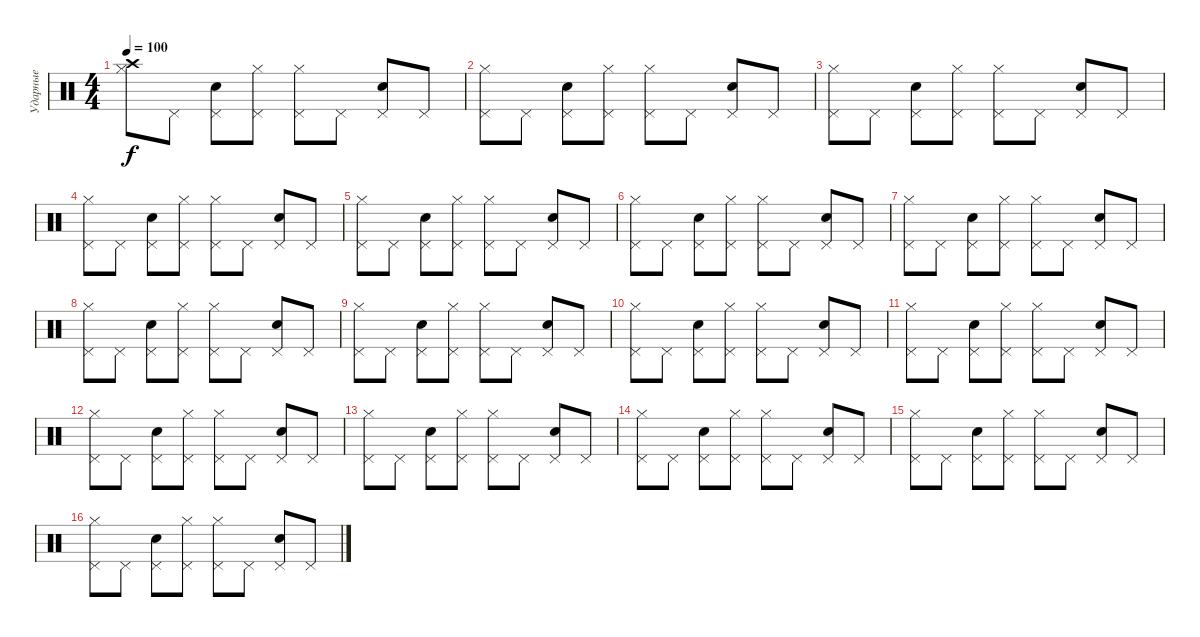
\track ("Ударные" "Ударные") {instrument percussion}
\staff {score}
\articulation defaults
\ts (4 4)
\tempo 100
\clef neutral
\ks c
("Crash high (hit)" "Hi-Hat (closed)").8{dy f} "Pedal Hi-Hat (hit)".8 ("Pedal Hi-Hat (hit)" "Snare (hit) 2").8 ("Pedal Hi-Hat (hit)" "Hi-Hat (closed)").8 ("Pedal Hi-Hat (hit)" "Hi-Hat (closed)").8 "Pedal Hi-Hat (hit)".8 ("Pedal Hi-Hat (hit)" "Snare (hit) 2").8 "Pedal Hi-Hat (hit)".8 |
("Pedal Hi-Hat (hit)" "Hi-Hat (closed)").8 "Pedal Hi-Hat (hit)".8 ("Pedal Hi-Hat (hit)" "Snare (hit) 2").8 ("Pedal Hi-Hat (hit)" "Hi-Hat (closed)").8 ("Pedal Hi-Hat (hit)" "Hi-Hat (closed)").8 "Pedal Hi-Hat (hit)".8 ("Pedal Hi-Hat (hit)" "Snare (hit) 2").8 "Pedal Hi-Hat (hit)".8 |
("Pedal Hi-Hat (hit)" "Hi-Hat (closed)").8 "Pedal Hi-Hat (hit)".8 ("Pedal Hi-Hat (hit)" "Snare (hit) 2").8 ("Pedal Hi-Hat (hit)" "Hi-Hat (closed)").8 ("Pedal Hi-Hat (hit)" "Hi-Hat (closed)").8 "Pedal Hi-Hat (hit)".8 ("Pedal Hi-Hat (hit)" "Snare (hit) 2").8 "Pedal Hi-Hat (hit)".8 |
("Pedal Hi-Hat (hit)" "Hi-Hat (closed)").8 "Pedal Hi-Hat (hit)".8 ("Pedal Hi-Hat (hit)" "Snare (hit) 2").8 ("Pedal Hi-Hat (hit)" "Hi-Hat (closed)").8 ("Pedal Hi-Hat (hit)" "Hi-Hat (closed)").8 "Pedal Hi-Hat (hit)".8 ("Pedal Hi-Hat (hit)" "Snare (hit) 2").8 "Pedal Hi-Hat (hit)".8 |
("Pedal Hi-Hat (hit)" "Hi-Hat (closed)").8 "Pedal Hi-Hat (hit)".8 ("Pedal Hi-Hat (hit)" "Snare (hit) 2").8 ("Pedal Hi-Hat (hit)" "Hi-Hat (closed)").8 ("Pedal Hi-Hat (hit)" "Hi-Hat (closed)").8 "Pedal Hi-Hat (hit)".8 ("Pedal Hi-Hat (hit)" "Snare (hit) 2").8 "Pedal Hi-Hat (hit)".8 |
("Pedal Hi-Hat (hit)" "Hi-Hat (closed)").8 "Pedal Hi-Hat (hit)".8 ("Pedal Hi-Hat (hit)" "Snare (hit) 2").8 ("Pedal Hi-Hat (hit)" "Hi-Hat (closed)").8 ("Pedal Hi-Hat (hit)" "Hi-Hat (closed)").8 "Pedal Hi-Hat (hit)".8 ("Pedal Hi-Hat (hit)" "Snare (hit) 2").8 "Pedal Hi-Hat (hit)".8 |
("Pedal Hi-Hat (hit)" "Hi-Hat (closed)").8 "Pedal Hi-Hat (hit)".8 ("Pedal Hi-Hat (hit)" "Snare (hit) 2").8 ("Pedal Hi-Hat (hit)" "Hi-Hat (closed)").8 ("Pedal Hi-Hat (hit)" "Hi-Hat (closed)").8 "Pedal Hi-Hat (hit)".8 ("Pedal Hi-Hat (hit)" "Snare (hit) 2").8 "Pedal Hi-Hat (hit)".8 |
("Pedal Hi-Hat (hit)" "Hi-Hat (closed)").8 "Pedal Hi-Hat (hit)".8 ("Pedal Hi-Hat (hit)" "Snare (hit) 2").8 ("Pedal Hi-Hat (hit)" "Hi-Hat (closed)").8 ("Pedal Hi-Hat (hit)" "Hi-Hat (closed)").8 "Pedal Hi-Hat (hit)".8 ("Pedal Hi-Hat (hit)" "Snare (hit) 2").8 "Pedal Hi-Hat (hit)".8 |
("Pedal Hi-Hat (hit)" "Hi-Hat (closed)").8 "Pedal Hi-Hat (hit)".8 ("Pedal Hi-Hat (hit)" "Snare (hit) 2").8 ("Pedal Hi-Hat (hit)" "Hi-Hat (closed)").8 ("Pedal Hi-Hat (hit)" "Hi-Hat (closed)").8 "Pedal Hi-Hat (hit)".8 ("Pedal Hi-Hat (hit)" "Snare (hit) 2").8 "Pedal Hi-Hat (hit)".8 |
("Pedal Hi-Hat (hit)" "Hi-Hat (closed)").8 "Pedal Hi-Hat (hit)".8 ("Pedal Hi-Hat (hit)" "Snare (hit) 2").8 ("Pedal Hi-Hat (hit)" "Hi-Hat (closed)").8 ("Pedal Hi-Hat (hit)" "Hi-Hat (closed)").8 "Pedal Hi-Hat (hit)".8 ("Pedal Hi-Hat (hit)" "Snare (hit) 2").8 "Pedal Hi-Hat (hit)".8 |
("Pedal Hi-Hat (hit)" "Hi-Hat (closed)").8 "Pedal Hi-Hat (hit)".8 ("Pedal Hi-Hat (hit)" "Snare (hit) 2").8 ("Pedal Hi-Hat (hit)" "Hi-Hat (closed)").8 ("Pedal Hi-Hat (hit)" "Hi-Hat (closed)").8 "Pedal Hi-Hat (hit)".8 ("Pedal Hi-Hat (hit)" "Snare (hit) 2").8 "Pedal Hi-Hat (hit)".8 |
("Pedal Hi-Hat (hit)" "Hi-Hat (closed)").8 "Pedal Hi-Hat (hit)".8 ("Pedal Hi-Hat (hit)" "Snare (hit) 2").8 ("Pedal Hi-Hat (hit)" "Hi-Hat (closed)").8 ("Pedal Hi-Hat (hit)" "Hi-Hat (closed)").8 "Pedal Hi-Hat (hit)".8 ("Pedal Hi-Hat (hit)" "Snare (hit) 2").8 "Pedal Hi-Hat (hit)".8 |
("Pedal Hi-Hat (hit)" "Hi-Hat (closed)").8 "Pedal Hi-Hat (hit)".8 ("Pedal Hi-Hat (hit)" "Snare (hit) 2").8 ("Pedal Hi-Hat (hit)" "Hi-Hat (closed)").8 ("Pedal Hi-Hat (hit)" "Hi-Hat (closed)").8 "Pedal Hi-Hat (hit)".8 ("Pedal Hi-Hat (hit)" "Snare (hit) 2").8 "Pedal Hi-Hat (hit)".8 |
("Pedal Hi-Hat (hit)" "Hi-Hat (closed)").8 "Pedal Hi-Hat (hit)".8 ("Pedal Hi-Hat (hit)" "Snare (hit) 2").8 ("Pedal Hi-Hat (hit)" "Hi-Hat (closed)").8 ("Pedal Hi-Hat (hit)" "Hi-Hat (closed)").8 "Pedal Hi-Hat (hit)".8 ("Pedal Hi-Hat (hit)" "Snare (hit) 2").8 "Pedal Hi-Hat (hit)".8 |
("Pedal Hi-Hat (hit)" "Hi-Hat (closed)").8 "Pedal Hi-Hat (hit)".8 ("Pedal Hi-Hat (hit)" "Snare (hit) 2").8 ("Pedal Hi-Hat (hit)" "Hi-Hat (closed)").8 ("Pedal Hi-Hat (hit)" "Hi-Hat (closed)").8 "Pedal Hi-Hat (hit)".8 ("Pedal Hi-Hat (hit)" "Snare (hit) 2").8 "Pedal Hi-Hat (hit)".8 |
("Pedal Hi-Hat (hit)" "Hi-Hat (closed)").8 "Pedal Hi-Hat (hit)".8 ("Pedal Hi-Hat (hit)" "Snare (hit) 2").8 ("Pedal Hi-Hat (hit)" "Hi-Hat (closed)").8 ("Pedal Hi-Hat (hit)" "Hi-Hat (closed)").8 "Pedal Hi-Hat (hit)".8 ("Pedal Hi-Hat (hit)" "Snare (hit) 2").8 "Pedal Hi-Hat (hit)".8
